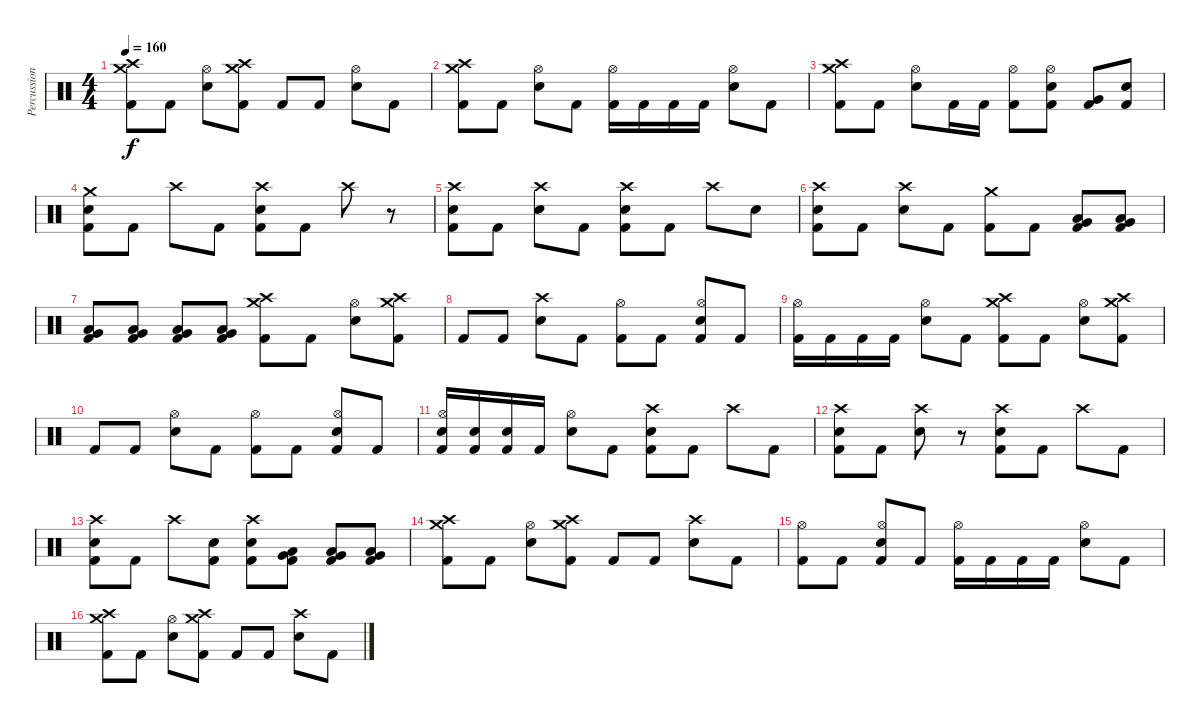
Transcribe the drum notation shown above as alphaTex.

\track ("Percussion" "Percussion") {instrument percussion}
\staff {score}
\articulation defaults
\ts (4 4)
\tempo 160
\clef neutral
\ks c
("Crash medium (hit)" "Crash high (hit)" "Kick (hit) 2").8{dy f} "Kick (hit) 2".8 ("Hi-Hat (open)" "Electric Snare (hit)").8 ("Crash medium (hit)" "Crash high (hit)" "Kick (hit) 2").8 "Kick (hit) 2".8 "Kick (hit) 2".8 ("Hi-Hat (open)" "Electric Snare (hit)").8 "Kick (hit) 2".8 |
("Crash medium (hit)" "Crash high (hit)" "Kick (hit) 2").8 "Kick (hit) 2".8 ("Hi-Hat (open)" "Electric Snare (hit)").8 "Kick (hit) 2".8 ("Hi-Hat (open)" "Kick (hit) 2").16 "Kick (hit) 2".16 "Kick (hit) 2".16 "Kick (hit) 2".16 ("Hi-Hat (open)" "Electric Snare (hit)").8 "Kick (hit) 2".8 |
("Crash medium (hit)" "Crash high (hit)" "Kick (hit) 2").8 "Kick (hit) 2".8 ("Hi-Hat (open)" "Electric Snare (hit)").8 "Kick (hit) 2".16 "Kick (hit) 2".16 ("Hi-Hat (open)" "Kick (hit) 2").8 ("Hi-Hat (open)" "Electric Snare (hit)" "Kick (hit) 2").8 ("Very Low Tom (hit)" "Kick (hit) 2").8 ("Electric Snare (hit)" "Kick (hit) 2").8 |
("Crash medium (hit)" "Electric Snare (hit)" "Kick (hit) 2").8 "Kick (hit) 2".8 "Crash high (hit)".8 "Kick (hit) 2".8 ("Crash high (hit)" "Electric Snare (hit)" "Kick (hit) 2").8 "Kick (hit) 2".8 "Crash high (hit)".8 r.8 |
("Crash high (hit)" "Electric Snare (hit)" "Kick (hit) 2").8 "Kick (hit) 2".8 ("Crash high (hit)" "Electric Snare (hit)").8 "Kick (hit) 2".8 ("Crash high (hit)" "Electric Snare (hit)" "Kick (hit) 2").8 "Kick (hit) 2".8 "Crash high (hit)".8 "Electric Snare (hit)".8 |
("Crash high (hit)" "Electric Snare (hit)" "Kick (hit) 2").8 "Kick (hit) 2".8 ("Crash high (hit)" "Electric Snare (hit)").8 "Kick (hit) 2".8 ("Crash medium (hit)" "Kick (hit) 2").8 "Kick (hit) 2".8 ("Low Floor Tom (hit)" "Very Low Tom (hit)" "Kick (hit) 2").8 ("Low Floor Tom (hit)" "Very Low Tom (hit)" "Kick (hit) 2").8 |
("Low Floor Tom (hit)" "Very Low Tom (hit)" "Kick (hit) 2").8 ("Low Floor Tom (hit)" "Very Low Tom (hit)" "Kick (hit) 2").8 ("Low Floor Tom (hit)" "Very Low Tom (hit)" "Kick (hit) 2").8 ("Low Floor Tom (hit)" "Very Low Tom (hit)" "Kick (hit) 2").8 ("Crash medium (hit)" "Crash high (hit)" "Kick (hit) 2").8 "Kick (hit) 2".8 ("Hi-Hat (open)" "Electric Snare (hit)").8 ("Crash medium (hit)" "Crash high (hit)" "Kick (hit) 2").8 |
"Kick (hit) 2".8 "Kick (hit) 2".8 ("Crash high (hit)" "Electric Snare (hit)").8 "Kick (hit) 2".8 ("Hi-Hat (open)" "Kick (hit) 2").8 "Kick (hit) 2".8 ("Hi-Hat (open)" "Electric Snare (hit)" "Kick (hit) 2").8 "Kick (hit) 2".8 |
("Hi-Hat (open)" "Kick (hit) 2").16 "Kick (hit) 2".16 "Kick (hit) 2".16 "Kick (hit) 2".16 ("Hi-Hat (open)" "Electric Snare (hit)").8 "Kick (hit) 2".8 ("Crash medium (hit)" "Crash high (hit)" "Kick (hit) 2").8 "Kick (hit) 2".8 ("Hi-Hat (open)" "Electric Snare (hit)").8 ("Crash medium (hit)" "Crash high (hit)" "Kick (hit) 2").8 |
"Kick (hit) 2".8 "Kick (hit) 2".8 ("Hi-Hat (open)" "Electric Snare (hit)").8 "Kick (hit) 2".8 ("Hi-Hat (open)" "Kick (hit) 2").8 "Kick (hit) 2".8 ("Hi-Hat (open)" "Electric Snare (hit)" "Kick (hit) 2").8 "Kick (hit) 2".8 |
("Hi-Hat (open)" "Electric Snare (hit)" "Kick (hit) 2").16 ("Electric Snare (hit)" "Kick (hit) 2").16 ("Electric Snare (hit)" "Kick (hit) 2").16 "Kick (hit) 2".16 ("Hi-Hat (open)" "Electric Snare (hit)").8 "Kick (hit) 2".8 ("Crash high (hit)" "Electric Snare (hit)" "Kick (hit) 2").8 "Kick (hit) 2".8 "Crash high (hit)".8 "Kick (hit) 2".8 |
("Crash high (hit)" "Electric Snare (hit)" "Kick (hit) 2").8 "Kick (hit) 2".8 ("Crash high (hit)" "Electric Snare (hit)").8 r.8 ("Crash high (hit)" "Electric Snare (hit)" "Kick (hit) 2").8 "Kick (hit) 2".8 "Crash high (hit)".8 "Kick (hit) 2".8 |
("Crash high (hit)" "Electric Snare (hit)" "Kick (hit) 2").8 "Kick (hit) 2".8 "Crash high (hit)".8 ("Electric Snare (hit)" "Kick (hit) 2").8 ("Crash high (hit)" "Electric Snare (hit)" "Kick (hit) 2").8 ("Low Floor Tom (hit)" "Very Low Tom (hit)" "Kick (hit) 2").8 ("Low Floor Tom (hit)" "Very Low Tom (hit)" "Kick (hit) 2").8 ("Low Floor Tom (hit)" "Very Low Tom (hit)" "Kick (hit) 2").8 |
("Crash medium (hit)" "Crash high (hit)" "Kick (hit) 2").8 "Kick (hit) 2".8 ("Hi-Hat (open)" "Electric Snare (hit)").8 ("Crash medium (hit)" "Crash high (hit)" "Kick (hit) 2").8 "Kick (hit) 2".8 "Kick (hit) 2".8 ("Crash high (hit)" "Electric Snare (hit)").8 "Kick (hit) 2".8 |
("Hi-Hat (open)" "Kick (hit) 2").8 "Kick (hit) 2".8 ("Hi-Hat (open)" "Electric Snare (hit)" "Kick (hit) 2").8 "Kick (hit) 2".8 ("Hi-Hat (open)" "Kick (hit) 2").16 "Kick (hit) 2".16 "Kick (hit) 2".16 "Kick (hit) 2".16 ("Hi-Hat (open)" "Electric Snare (hit)").8 "Kick (hit) 2".8 |
("Crash medium (hit)" "Crash high (hit)" "Kick (hit) 2").8 "Kick (hit) 2".8 ("Hi-Hat (open)" "Electric Snare (hit)").8 ("Crash medium (hit)" "Crash high (hit)" "Kick (hit) 2").8 "Kick (hit) 2".8 "Kick (hit) 2".8 ("Crash high (hit)" "Electric Snare (hit)").8 "Kick (hit) 2".8
